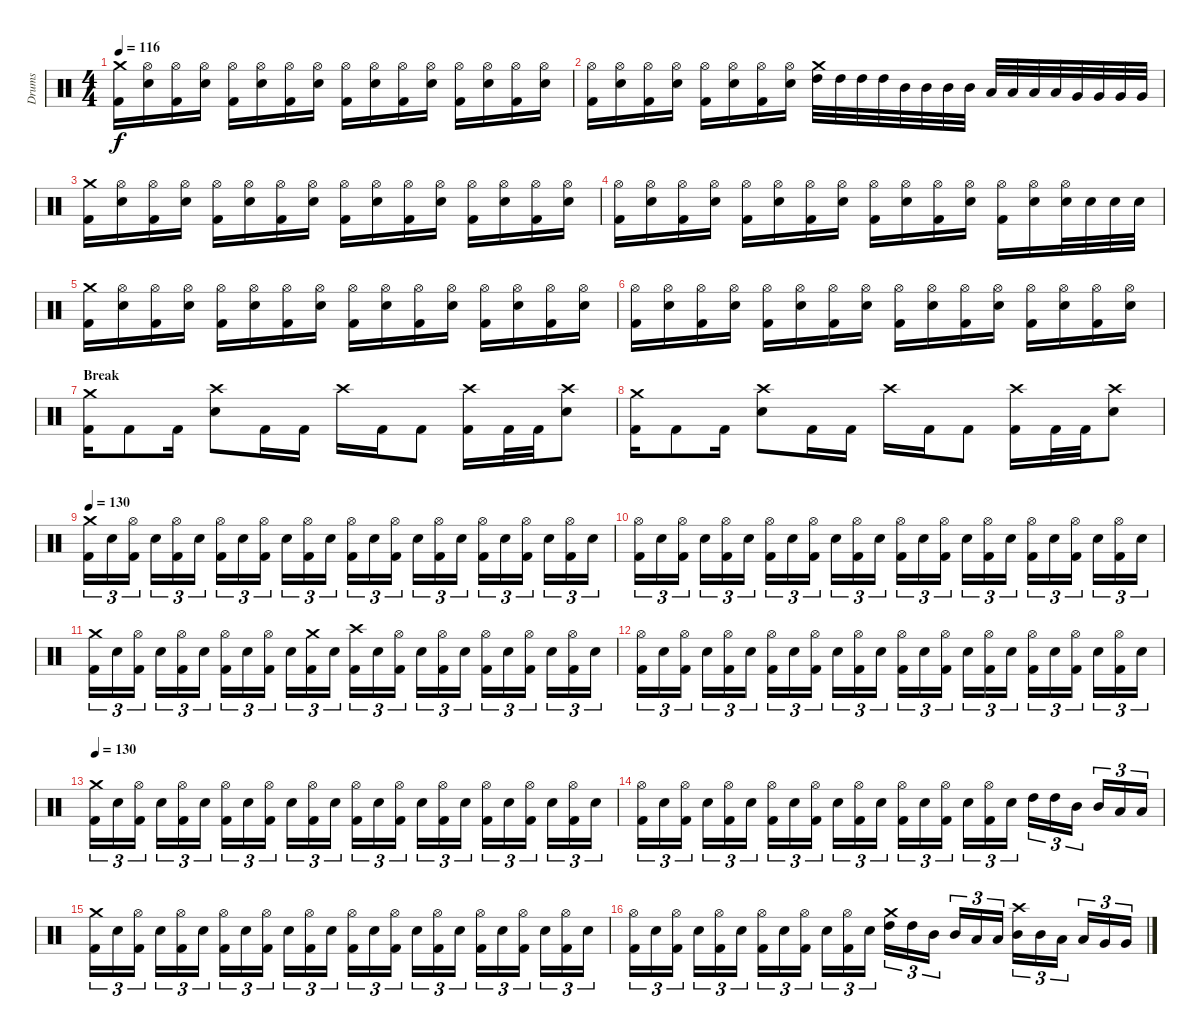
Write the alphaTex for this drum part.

\track ("Drums" "Drums") {instrument percussion}
\staff {score}
\articulation defaults
\ts (4 4)
\tempo 116
\clef neutral
\ks c
("Kick (hit) 2" "Crash medium (hit)").16{dy f} ("Electric Snare (hit)" "Hi-Hat (open)").16 ("Kick (hit) 2" "Hi-Hat (open)").16 ("Electric Snare (hit)" "Hi-Hat (open)").16 ("Kick (hit) 2" "Hi-Hat (open)").16 ("Electric Snare (hit)" "Hi-Hat (open)").16 ("Kick (hit) 2" "Hi-Hat (open)").16 ("Electric Snare (hit)" "Hi-Hat (open)").16 ("Kick (hit) 2" "Hi-Hat (open)").16 ("Electric Snare (hit)" "Hi-Hat (open)").16 ("Kick (hit) 2" "Hi-Hat (open)").16 ("Electric Snare (hit)" "Hi-Hat (open)").16 ("Kick (hit) 2" "Hi-Hat (open)").16 ("Electric Snare (hit)" "Hi-Hat (open)").16 ("Kick (hit) 2" "Hi-Hat (open)").16 ("Electric Snare (hit)" "Hi-Hat (open)").16 |
("Kick (hit) 2" "Hi-Hat (open)").16 ("Electric Snare (hit)" "Hi-Hat (open)").16 ("Kick (hit) 2" "Hi-Hat (open)").16 ("Electric Snare (hit)" "Hi-Hat (open)").16 ("Kick (hit) 2" "Hi-Hat (open)").16 ("Electric Snare (hit)" "Hi-Hat (open)").16 ("Kick (hit) 2" "Hi-Hat (open)").16 ("Electric Snare (hit)" "Hi-Hat (open)").16 ("High Tom (hit)" "Crash medium (hit)").32 "High Tom (hit)".32 "High Tom (hit)".32 "High Tom (hit)".32 "Mid Tom (hit)".32 "Mid Tom (hit)".32 "Mid Tom (hit)".32 "Mid Tom (hit)".32 "Low Tom (hit)".32 "Low Tom (hit)".32 "Low Tom (hit)".32 "Low Tom (hit)".32 "Very Low Tom (hit)".32 "Very Low Tom (hit)".32 "Very Low Tom (hit)".32 "Very Low Tom (hit)".32 |
("Kick (hit) 2" "Crash medium (hit)").16 ("Electric Snare (hit)" "Hi-Hat (open)").16 ("Kick (hit) 2" "Hi-Hat (open)").16 ("Electric Snare (hit)" "Hi-Hat (open)").16 ("Kick (hit) 2" "Hi-Hat (open)").16 ("Electric Snare (hit)" "Hi-Hat (open)").16 ("Kick (hit) 2" "Hi-Hat (open)").16 ("Electric Snare (hit)" "Hi-Hat (open)").16 ("Kick (hit) 2" "Hi-Hat (open)").16 ("Electric Snare (hit)" "Hi-Hat (open)").16 ("Kick (hit) 2" "Hi-Hat (open)").16 ("Electric Snare (hit)" "Hi-Hat (open)").16 ("Kick (hit) 2" "Hi-Hat (open)").16 ("Electric Snare (hit)" "Hi-Hat (open)").16 ("Kick (hit) 2" "Hi-Hat (open)").16 ("Electric Snare (hit)" "Hi-Hat (open)").16 |
("Kick (hit) 2" "Hi-Hat (open)").16 ("Electric Snare (hit)" "Hi-Hat (open)").16 ("Kick (hit) 2" "Hi-Hat (open)").16 ("Electric Snare (hit)" "Hi-Hat (open)").16 ("Kick (hit) 2" "Hi-Hat (open)").16 ("Electric Snare (hit)" "Hi-Hat (open)").16 ("Kick (hit) 2" "Hi-Hat (open)").16 ("Electric Snare (hit)" "Hi-Hat (open)").16 ("Kick (hit) 2" "Hi-Hat (open)").16 ("Electric Snare (hit)" "Hi-Hat (open)").16 ("Kick (hit) 2" "Hi-Hat (open)").16 ("Electric Snare (hit)" "Hi-Hat (open)").16 ("Kick (hit) 2" "Hi-Hat (open)").16 ("Electric Snare (hit)" "Hi-Hat (open)").16 ("Electric Snare (hit)" "Hi-Hat (open)").32 "Electric Snare (hit)".32 "Electric Snare (hit)".32 "Electric Snare (hit)".32 |
("Kick (hit) 2" "Crash medium (hit)").16 ("Electric Snare (hit)" "Hi-Hat (open)").16 ("Kick (hit) 2" "Hi-Hat (open)").16 ("Electric Snare (hit)" "Hi-Hat (open)").16 ("Kick (hit) 2" "Hi-Hat (open)").16 ("Electric Snare (hit)" "Hi-Hat (open)").16 ("Kick (hit) 2" "Hi-Hat (open)").16 ("Electric Snare (hit)" "Hi-Hat (open)").16 ("Kick (hit) 2" "Hi-Hat (open)").16 ("Electric Snare (hit)" "Hi-Hat (open)").16 ("Kick (hit) 2" "Hi-Hat (open)").16 ("Electric Snare (hit)" "Hi-Hat (open)").16 ("Kick (hit) 2" "Hi-Hat (open)").16 ("Electric Snare (hit)" "Hi-Hat (open)").16 ("Kick (hit) 2" "Hi-Hat (open)").16 ("Electric Snare (hit)" "Hi-Hat (open)").16 |
("Kick (hit) 2" "Hi-Hat (open)").16 ("Electric Snare (hit)" "Hi-Hat (open)").16 ("Kick (hit) 2" "Hi-Hat (open)").16 ("Electric Snare (hit)" "Hi-Hat (open)").16 ("Kick (hit) 2" "Hi-Hat (open)").16 ("Electric Snare (hit)" "Hi-Hat (open)").16 ("Kick (hit) 2" "Hi-Hat (open)").16 ("Electric Snare (hit)" "Hi-Hat (open)").16 ("Kick (hit) 2" "Hi-Hat (open)").16 ("Electric Snare (hit)" "Hi-Hat (open)").16 ("Kick (hit) 2" "Hi-Hat (open)").16 ("Electric Snare (hit)" "Hi-Hat (open)").16 ("Kick (hit) 2" "Hi-Hat (open)").16 ("Electric Snare (hit)" "Hi-Hat (open)").16 ("Kick (hit) 2" "Hi-Hat (open)").16 ("Electric Snare (hit)" "Hi-Hat (open)").16 |
\section ("" "Break")
("Kick (hit) 2" "Crash medium (hit)").16 "Kick (hit) 2".8 "Kick (hit) 2".16 ("Electric Snare (hit)" "Crash high (hit)").8 "Kick (hit) 2".16 "Kick (hit) 2".16 "Crash high (hit)".16 "Kick (hit) 2".16 "Kick (hit) 2".8 ("Kick (hit) 2" "Crash high (hit)").16 "Kick (hit) 2".32 "Kick (hit) 2".32 ("Electric Snare (hit)" "Crash high (hit)").8 |
("Kick (hit) 2" "Crash medium (hit)").16 "Kick (hit) 2".8 "Kick (hit) 2".16 ("Electric Snare (hit)" "Crash high (hit)").8 "Kick (hit) 2".16 "Kick (hit) 2".16 "Crash high (hit)".16 "Kick (hit) 2".16 "Kick (hit) 2".8 ("Kick (hit) 2" "Crash high (hit)").16 "Kick (hit) 2".32 "Kick (hit) 2".32 ("Electric Snare (hit)" "Crash high (hit)").8 |
\tempo 130
("Kick (hit) 2" "Crash medium (hit)").16{tu (3 2)} "Electric Snare (hit)".16{tu (3 2)} ("Kick (hit) 2" "Hi-Hat (open)").16{tu (3 2)} "Electric Snare (hit)".16{tu (3 2)} ("Kick (hit) 2" "Hi-Hat (open)").16{tu (3 2)} "Electric Snare (hit)".16{tu (3 2)} ("Kick (hit) 2" "Hi-Hat (open)").16{tu (3 2)} "Electric Snare (hit)".16{tu (3 2)} ("Kick (hit) 2" "Hi-Hat (open)").16{tu (3 2)} "Electric Snare (hit)".16{tu (3 2)} ("Kick (hit) 2" "Hi-Hat (open)").16{tu (3 2)} "Electric Snare (hit)".16{tu (3 2)} ("Kick (hit) 2" "Hi-Hat (open)").16{tu (3 2)} "Electric Snare (hit)".16{tu (3 2)} ("Kick (hit) 2" "Hi-Hat (open)").16{tu (3 2)} "Electric Snare (hit)".16{tu (3 2)} ("Kick (hit) 2" "Hi-Hat (open)").16{tu (3 2)} "Electric Snare (hit)".16{tu (3 2)} ("Kick (hit) 2" "Hi-Hat (open)").16{tu (3 2)} "Electric Snare (hit)".16{tu (3 2)} ("Kick (hit) 2" "Hi-Hat (open)").16{tu (3 2)} "Electric Snare (hit)".16{tu (3 2)} ("Kick (hit) 2" "Hi-Hat (open)").16{tu (3 2)} "Electric Snare (hit)".16{tu (3 2)} |
("Kick (hit) 2" "Hi-Hat (open)").16{tu (3 2)} "Electric Snare (hit)".16{tu (3 2)} ("Kick (hit) 2" "Hi-Hat (open)").16{tu (3 2)} "Electric Snare (hit)".16{tu (3 2)} ("Kick (hit) 2" "Hi-Hat (open)").16{tu (3 2)} "Electric Snare (hit)".16{tu (3 2)} ("Kick (hit) 2" "Hi-Hat (open)").16{tu (3 2)} "Electric Snare (hit)".16{tu (3 2)} ("Kick (hit) 2" "Hi-Hat (open)").16{tu (3 2)} "Electric Snare (hit)".16{tu (3 2)} ("Kick (hit) 2" "Hi-Hat (open)").16{tu (3 2)} "Electric Snare (hit)".16{tu (3 2)} ("Kick (hit) 2" "Hi-Hat (open)").16{tu (3 2)} "Electric Snare (hit)".16{tu (3 2)} ("Kick (hit) 2" "Hi-Hat (open)").16{tu (3 2)} "Electric Snare (hit)".16{tu (3 2)} ("Kick (hit) 2" "Hi-Hat (open)").16{tu (3 2)} "Electric Snare (hit)".16{tu (3 2)} ("Kick (hit) 2" "Hi-Hat (open)").16{tu (3 2)} "Electric Snare (hit)".16{tu (3 2)} ("Kick (hit) 2" "Hi-Hat (open)").16{tu (3 2)} "Electric Snare (hit)".16{tu (3 2)} ("Kick (hit) 2" "Hi-Hat (open)").16{tu (3 2)} "Electric Snare (hit)".16{tu (3 2)} |
("Kick (hit) 2" "Crash medium (hit)").16{tu (3 2)} "Electric Snare (hit)".16{tu (3 2)} ("Kick (hit) 2" "Hi-Hat (open)").16{tu (3 2)} "Electric Snare (hit)".16{tu (3 2)} ("Kick (hit) 2" "Hi-Hat (open)").16{tu (3 2)} "Electric Snare (hit)".16{tu (3 2)} ("Kick (hit) 2" "Hi-Hat (open)").16{tu (3 2)} "Electric Snare (hit)".16{tu (3 2)} ("Kick (hit) 2" "Hi-Hat (open)").16{tu (3 2)} "Electric Snare (hit)".16{tu (3 2)} ("Kick (hit) 2" "Crash medium (hit)").16{tu (3 2)} "Electric Snare (hit)".16{tu (3 2)} ("Kick (hit) 2" "Crash high (hit)").16{tu (3 2)} "Electric Snare (hit)".16{tu (3 2)} ("Kick (hit) 2" "Hi-Hat (open)").16{tu (3 2)} "Electric Snare (hit)".16{tu (3 2)} ("Kick (hit) 2" "Hi-Hat (open)").16{tu (3 2)} "Electric Snare (hit)".16{tu (3 2)} ("Kick (hit) 2" "Hi-Hat (open)").16{tu (3 2)} "Electric Snare (hit)".16{tu (3 2)} ("Kick (hit) 2" "Hi-Hat (open)").16{tu (3 2)} "Electric Snare (hit)".16{tu (3 2)} ("Kick (hit) 2" "Hi-Hat (open)").16{tu (3 2)} "Electric Snare (hit)".16{tu (3 2)} |
("Kick (hit) 2" "Hi-Hat (open)").16{tu (3 2)} "Electric Snare (hit)".16{tu (3 2)} ("Kick (hit) 2" "Hi-Hat (open)").16{tu (3 2)} "Electric Snare (hit)".16{tu (3 2)} ("Kick (hit) 2" "Hi-Hat (open)").16{tu (3 2)} "Electric Snare (hit)".16{tu (3 2)} ("Kick (hit) 2" "Hi-Hat (open)").16{tu (3 2)} "Electric Snare (hit)".16{tu (3 2)} ("Kick (hit) 2" "Hi-Hat (open)").16{tu (3 2)} "Electric Snare (hit)".16{tu (3 2)} ("Kick (hit) 2" "Hi-Hat (open)").16{tu (3 2)} "Electric Snare (hit)".16{tu (3 2)} ("Kick (hit) 2" "Hi-Hat (open)").16{tu (3 2)} "Electric Snare (hit)".16{tu (3 2)} ("Kick (hit) 2" "Hi-Hat (open)").16{tu (3 2)} "Electric Snare (hit)".16{tu (3 2)} ("Kick (hit) 2" "Hi-Hat (open)").16{tu (3 2)} "Electric Snare (hit)".16{tu (3 2)} ("Kick (hit) 2" "Hi-Hat (open)").16{tu (3 2)} "Electric Snare (hit)".16{tu (3 2)} ("Kick (hit) 2" "Hi-Hat (open)").16{tu (3 2)} "Electric Snare (hit)".16{tu (3 2)} ("Kick (hit) 2" "Hi-Hat (open)").16{tu (3 2)} "Electric Snare (hit)".16{tu (3 2)} |
\tempo 130
("Kick (hit) 2" "Crash medium (hit)").16{tu (3 2)} "Electric Snare (hit)".16{tu (3 2)} ("Kick (hit) 2" "Hi-Hat (open)").16{tu (3 2)} "Electric Snare (hit)".16{tu (3 2)} ("Kick (hit) 2" "Hi-Hat (open)").16{tu (3 2)} "Electric Snare (hit)".16{tu (3 2)} ("Kick (hit) 2" "Hi-Hat (open)").16{tu (3 2)} "Electric Snare (hit)".16{tu (3 2)} ("Kick (hit) 2" "Hi-Hat (open)").16{tu (3 2)} "Electric Snare (hit)".16{tu (3 2)} ("Kick (hit) 2" "Hi-Hat (open)").16{tu (3 2)} "Electric Snare (hit)".16{tu (3 2)} ("Kick (hit) 2" "Hi-Hat (open)").16{tu (3 2)} "Electric Snare (hit)".16{tu (3 2)} ("Kick (hit) 2" "Hi-Hat (open)").16{tu (3 2)} "Electric Snare (hit)".16{tu (3 2)} ("Kick (hit) 2" "Hi-Hat (open)").16{tu (3 2)} "Electric Snare (hit)".16{tu (3 2)} ("Kick (hit) 2" "Hi-Hat (open)").16{tu (3 2)} "Electric Snare (hit)".16{tu (3 2)} ("Kick (hit) 2" "Hi-Hat (open)").16{tu (3 2)} "Electric Snare (hit)".16{tu (3 2)} ("Kick (hit) 2" "Hi-Hat (open)").16{tu (3 2)} "Electric Snare (hit)".16{tu (3 2)} |
("Kick (hit) 2" "Hi-Hat (open)").16{tu (3 2)} "Electric Snare (hit)".16{tu (3 2)} ("Kick (hit) 2" "Hi-Hat (open)").16{tu (3 2)} "Electric Snare (hit)".16{tu (3 2)} ("Kick (hit) 2" "Hi-Hat (open)").16{tu (3 2)} "Electric Snare (hit)".16{tu (3 2)} ("Kick (hit) 2" "Hi-Hat (open)").16{tu (3 2)} "Electric Snare (hit)".16{tu (3 2)} ("Kick (hit) 2" "Hi-Hat (open)").16{tu (3 2)} "Electric Snare (hit)".16{tu (3 2)} ("Kick (hit) 2" "Hi-Hat (open)").16{tu (3 2)} "Electric Snare (hit)".16{tu (3 2)} ("Kick (hit) 2" "Hi-Hat (open)").16{tu (3 2)} "Electric Snare (hit)".16{tu (3 2)} ("Kick (hit) 2" "Hi-Hat (open)").16{tu (3 2)} "Electric Snare (hit)".16{tu (3 2)} ("Kick (hit) 2" "Hi-Hat (open)").16{tu (3 2)} "Electric Snare (hit)".16{tu (3 2)} "High Tom (hit)".16{tu (3 2)} "High Tom (hit)".16{tu (3 2)} "Mid Tom (hit)".16{tu (3 2)} "Mid Tom (hit)".16{tu (3 2)} "Low Tom (hit)".16{tu (3 2)} "Low Tom (hit)".16{tu (3 2)} |
("Kick (hit) 2" "Crash medium (hit)").16{tu (3 2)} "Electric Snare (hit)".16{tu (3 2)} ("Kick (hit) 2" "Hi-Hat (open)").16{tu (3 2)} "Electric Snare (hit)".16{tu (3 2)} ("Kick (hit) 2" "Hi-Hat (open)").16{tu (3 2)} "Electric Snare (hit)".16{tu (3 2)} ("Kick (hit) 2" "Hi-Hat (open)").16{tu (3 2)} "Electric Snare (hit)".16{tu (3 2)} ("Kick (hit) 2" "Hi-Hat (open)").16{tu (3 2)} "Electric Snare (hit)".16{tu (3 2)} ("Kick (hit) 2" "Hi-Hat (open)").16{tu (3 2)} "Electric Snare (hit)".16{tu (3 2)} ("Kick (hit) 2" "Hi-Hat (open)").16{tu (3 2)} "Electric Snare (hit)".16{tu (3 2)} ("Kick (hit) 2" "Hi-Hat (open)").16{tu (3 2)} "Electric Snare (hit)".16{tu (3 2)} ("Kick (hit) 2" "Hi-Hat (open)").16{tu (3 2)} "Electric Snare (hit)".16{tu (3 2)} ("Kick (hit) 2" "Hi-Hat (open)").16{tu (3 2)} "Electric Snare (hit)".16{tu (3 2)} ("Kick (hit) 2" "Hi-Hat (open)").16{tu (3 2)} "Electric Snare (hit)".16{tu (3 2)} ("Kick (hit) 2" "Hi-Hat (open)").16{tu (3 2)} "Electric Snare (hit)".16{tu (3 2)} |
("Kick (hit) 2" "Hi-Hat (open)").16{tu (3 2)} "Electric Snare (hit)".16{tu (3 2)} ("Kick (hit) 2" "Hi-Hat (open)").16{tu (3 2)} "Electric Snare (hit)".16{tu (3 2)} ("Kick (hit) 2" "Hi-Hat (open)").16{tu (3 2)} "Electric Snare (hit)".16{tu (3 2)} ("Kick (hit) 2" "Hi-Hat (open)").16{tu (3 2)} "Electric Snare (hit)".16{tu (3 2)} ("Kick (hit) 2" "Hi-Hat (open)").16{tu (3 2)} "Electric Snare (hit)".16{tu (3 2)} ("Kick (hit) 2" "Hi-Hat (open)").16{tu (3 2)} "Electric Snare (hit)".16{tu (3 2)} ("High Tom (hit)" "Crash medium (hit)").16{tu (3 2)} "High Tom (hit)".16{tu (3 2)} "Mid Tom (hit)".16{tu (3 2)} "Mid Tom (hit)".16{tu (3 2)} "Low Tom (hit)".16{tu (3 2)} "Low Tom (hit)".16{tu (3 2)} ("Mid Tom (hit)" "Crash high (hit)").16{tu (3 2)} "Mid Tom (hit)".16{tu (3 2)} "Low Tom (hit)".16{tu (3 2)} "Low Tom (hit)".16{tu (3 2)} "Very Low Tom (hit)".16{tu (3 2)} "Very Low Tom (hit)".16{tu (3 2)}
